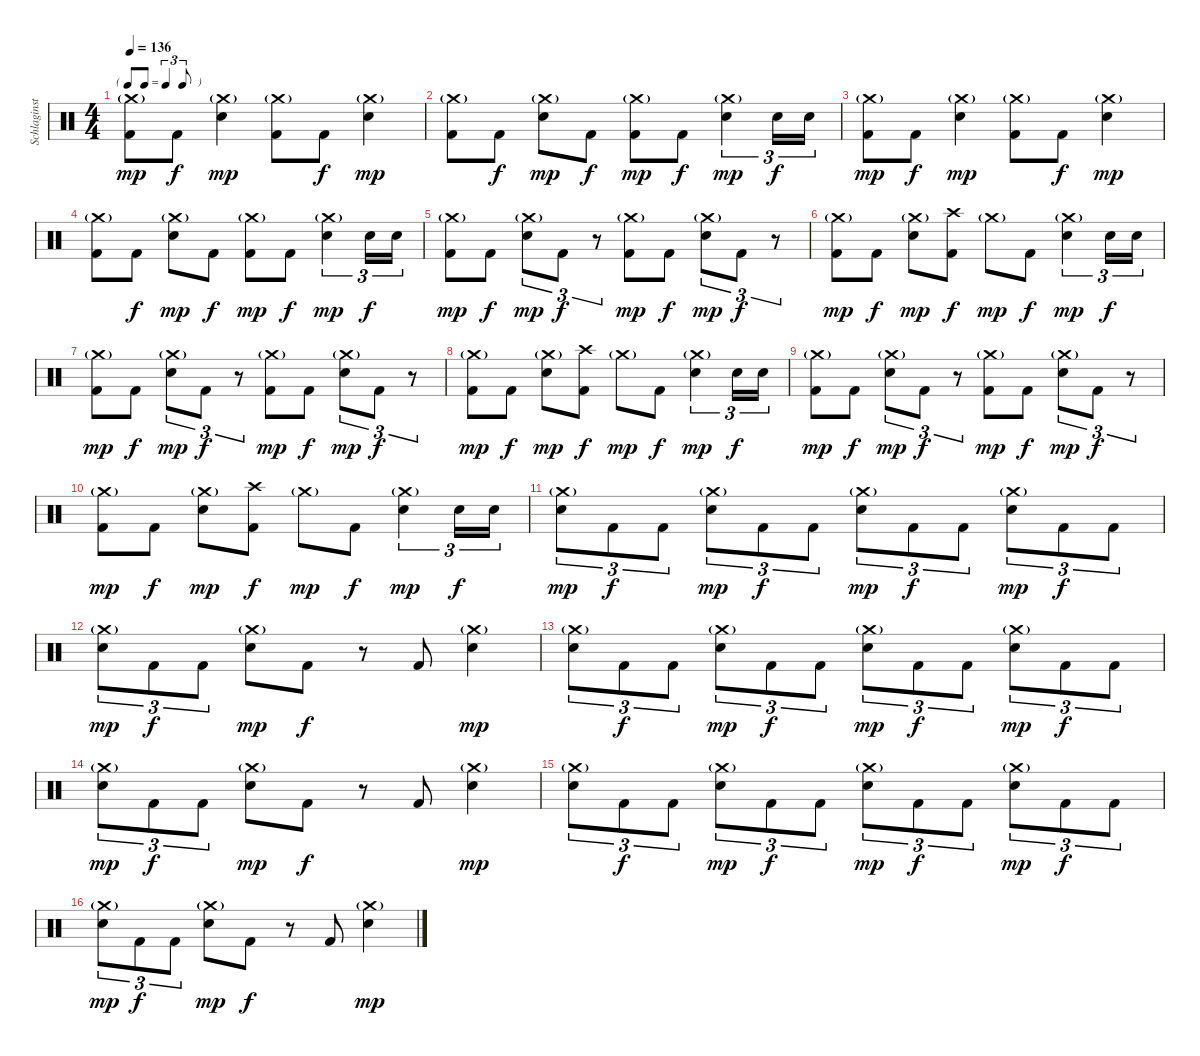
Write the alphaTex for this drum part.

\track ("Schlaginstrumente - Auswahl" "Schlaginst") {instrument percussion}
\staff {score}
\articulation defaults
\ts (4 4)
\tf triplet8th
\tempo 136
\clef neutral
\ks c
("Crash medium (hit)"{g} "Kick (hit) 2").8{dy mp} "Kick (hit) 2".8{dy f} ("Crash medium (hit)"{g} "Snare (hit) 2").4{dy mp} ("Crash medium (hit)"{g} "Kick (hit) 2").8 "Kick (hit) 2".8{dy f} ("Crash medium (hit)"{g} "Snare (hit) 2").4{dy mp} |
("Crash medium (hit)"{g} "Kick (hit) 2").8 "Kick (hit) 2".8{dy f} ("Crash medium (hit)"{g} "Snare (hit) 2").8{dy mp} "Kick (hit) 2".8{dy f} ("Crash medium (hit)"{g} "Kick (hit) 2").8{dy mp} "Kick (hit) 2".8{dy f} ("Crash medium (hit)"{g} "Snare (hit) 2").4{tu (3 2) dy mp} "Snare (hit) 2".16{tu (3 2) dy f} "Snare (hit) 2".16{tu (3 2)} |
("Crash medium (hit)"{g} "Kick (hit) 2").8{dy mp} "Kick (hit) 2".8{dy f} ("Crash medium (hit)"{g} "Snare (hit) 2").4{dy mp} ("Crash medium (hit)"{g} "Kick (hit) 2").8 "Kick (hit) 2".8{dy f} ("Crash medium (hit)"{g} "Snare (hit) 2").4{dy mp} |
("Crash medium (hit)"{g} "Kick (hit) 2").8 "Kick (hit) 2".8{dy f} ("Crash medium (hit)"{g} "Snare (hit) 2").8{dy mp} "Kick (hit) 2".8{dy f} ("Crash medium (hit)"{g} "Kick (hit) 2").8{dy mp} "Kick (hit) 2".8{dy f} ("Crash medium (hit)"{g} "Snare (hit) 2").4{tu (3 2) dy mp} "Snare (hit) 2".16{tu (3 2) dy f} "Snare (hit) 2".16{tu (3 2)} |
("Crash medium (hit)"{g} "Kick (hit) 2").8{dy mp} "Kick (hit) 2".8{dy f} ("Crash medium (hit)"{g} "Snare (hit) 2").8{tu (3 2) dy mp} "Kick (hit) 2".8{tu (3 2) dy f} r.8{tu (3 2)} ("Crash medium (hit)"{g} "Kick (hit) 2").8{dy mp} "Kick (hit) 2".8{dy f} ("Crash medium (hit)"{g} "Snare (hit) 2").8{tu (3 2) dy mp} "Kick (hit) 2".8{tu (3 2) dy f} r.8{tu (3 2)} |
("Crash medium (hit)"{g} "Kick (hit) 2").8{dy mp} "Kick (hit) 2".8{dy f} ("Crash medium (hit)"{g} "Snare (hit) 2").8{dy mp} ("Crash high (hit)" "Kick (hit) 2").8{dy f} "Crash medium (hit)"{g}.8{dy mp} "Kick (hit) 2".8{dy f} ("Crash medium (hit)"{g} "Snare (hit) 2").4{tu (3 2) dy mp} "Snare (hit) 2".16{tu (3 2) dy f} "Snare (hit) 2".16{tu (3 2)} |
("Crash medium (hit)"{g} "Kick (hit) 2").8{dy mp} "Kick (hit) 2".8{dy f} ("Crash medium (hit)"{g} "Snare (hit) 2").8{tu (3 2) dy mp} "Kick (hit) 2".8{tu (3 2) dy f} r.8{tu (3 2)} ("Crash medium (hit)"{g} "Kick (hit) 2").8{dy mp} "Kick (hit) 2".8{dy f} ("Crash medium (hit)"{g} "Snare (hit) 2").8{tu (3 2) dy mp} "Kick (hit) 2".8{tu (3 2) dy f} r.8{tu (3 2)} |
("Crash medium (hit)"{g} "Kick (hit) 2").8{dy mp} "Kick (hit) 2".8{dy f} ("Crash medium (hit)"{g} "Snare (hit) 2").8{dy mp} ("Crash high (hit)" "Kick (hit) 2").8{dy f} "Crash medium (hit)"{g}.8{dy mp} "Kick (hit) 2".8{dy f} ("Crash medium (hit)"{g} "Snare (hit) 2").4{tu (3 2) dy mp} "Snare (hit) 2".16{tu (3 2) dy f} "Snare (hit) 2".16{tu (3 2)} |
("Crash medium (hit)"{g} "Kick (hit) 2").8{dy mp} "Kick (hit) 2".8{dy f} ("Crash medium (hit)"{g} "Snare (hit) 2").8{tu (3 2) dy mp} "Kick (hit) 2".8{tu (3 2) dy f} r.8{tu (3 2)} ("Crash medium (hit)"{g} "Kick (hit) 2").8{dy mp} "Kick (hit) 2".8{dy f} ("Crash medium (hit)"{g} "Snare (hit) 2").8{tu (3 2) dy mp} "Kick (hit) 2".8{tu (3 2) dy f} r.8{tu (3 2)} |
("Crash medium (hit)"{g} "Kick (hit) 2").8{dy mp} "Kick (hit) 2".8{dy f} ("Crash medium (hit)"{g} "Snare (hit) 2").8{dy mp} ("Crash high (hit)" "Kick (hit) 2").8{dy f} "Crash medium (hit)"{g}.8{dy mp} "Kick (hit) 2".8{dy f} ("Crash medium (hit)"{g} "Snare (hit) 2").4{tu (3 2) dy mp} "Snare (hit) 2".16{tu (3 2) dy f} "Snare (hit) 2".16{tu (3 2)} |
("Crash medium (hit)"{g} "Snare (hit) 2").8{tu (3 2) dy mp} "Kick (hit) 2".8{tu (3 2) dy f} "Kick (hit) 2".8{tu (3 2)} ("Crash medium (hit)"{g} "Snare (hit) 2").8{tu (3 2) dy mp} "Kick (hit) 2".8{tu (3 2) dy f} "Kick (hit) 2".8{tu (3 2)} ("Crash medium (hit)"{g} "Snare (hit) 2").8{tu (3 2) dy mp} "Kick (hit) 2".8{tu (3 2) dy f} "Kick (hit) 2".8{tu (3 2)} ("Crash medium (hit)"{g} "Snare (hit) 2").8{tu (3 2) dy mp} "Kick (hit) 2".8{tu (3 2) dy f} "Kick (hit) 2".8{tu (3 2)} |
("Crash medium (hit)"{g} "Snare (hit) 2").8{tu (3 2) dy mp} "Kick (hit) 2".8{tu (3 2) dy f} "Kick (hit) 2".8{tu (3 2)} ("Crash medium (hit)"{g} "Snare (hit) 2").8{dy mp} "Kick (hit) 2".8{dy f} r.8 "Kick (hit) 2".8 ("Crash medium (hit)"{g} "Snare (hit) 2").4{dy mp} |
("Crash medium (hit)"{g} "Snare (hit) 2").8{tu (3 2)} "Kick (hit) 2".8{tu (3 2) dy f} "Kick (hit) 2".8{tu (3 2)} ("Crash medium (hit)"{g} "Snare (hit) 2").8{tu (3 2) dy mp} "Kick (hit) 2".8{tu (3 2) dy f} "Kick (hit) 2".8{tu (3 2)} ("Crash medium (hit)"{g} "Snare (hit) 2").8{tu (3 2) dy mp} "Kick (hit) 2".8{tu (3 2) dy f} "Kick (hit) 2".8{tu (3 2)} ("Crash medium (hit)"{g} "Snare (hit) 2").8{tu (3 2) dy mp} "Kick (hit) 2".8{tu (3 2) dy f} "Kick (hit) 2".8{tu (3 2)} |
("Crash medium (hit)"{g} "Snare (hit) 2").8{tu (3 2) dy mp} "Kick (hit) 2".8{tu (3 2) dy f} "Kick (hit) 2".8{tu (3 2)} ("Crash medium (hit)"{g} "Snare (hit) 2").8{dy mp} "Kick (hit) 2".8{dy f} r.8 "Kick (hit) 2".8 ("Crash medium (hit)"{g} "Snare (hit) 2").4{dy mp} |
("Crash medium (hit)"{g} "Snare (hit) 2").8{tu (3 2)} "Kick (hit) 2".8{tu (3 2) dy f} "Kick (hit) 2".8{tu (3 2)} ("Crash medium (hit)"{g} "Snare (hit) 2").8{tu (3 2) dy mp} "Kick (hit) 2".8{tu (3 2) dy f} "Kick (hit) 2".8{tu (3 2)} ("Crash medium (hit)"{g} "Snare (hit) 2").8{tu (3 2) dy mp} "Kick (hit) 2".8{tu (3 2) dy f} "Kick (hit) 2".8{tu (3 2)} ("Crash medium (hit)"{g} "Snare (hit) 2").8{tu (3 2) dy mp} "Kick (hit) 2".8{tu (3 2) dy f} "Kick (hit) 2".8{tu (3 2)} |
("Crash medium (hit)"{g} "Snare (hit) 2").8{tu (3 2) dy mp} "Kick (hit) 2".8{tu (3 2) dy f} "Kick (hit) 2".8{tu (3 2)} ("Crash medium (hit)"{g} "Snare (hit) 2").8{dy mp} "Kick (hit) 2".8{dy f} r.8 "Kick (hit) 2".8 ("Crash medium (hit)"{g} "Snare (hit) 2").4{dy mp}
